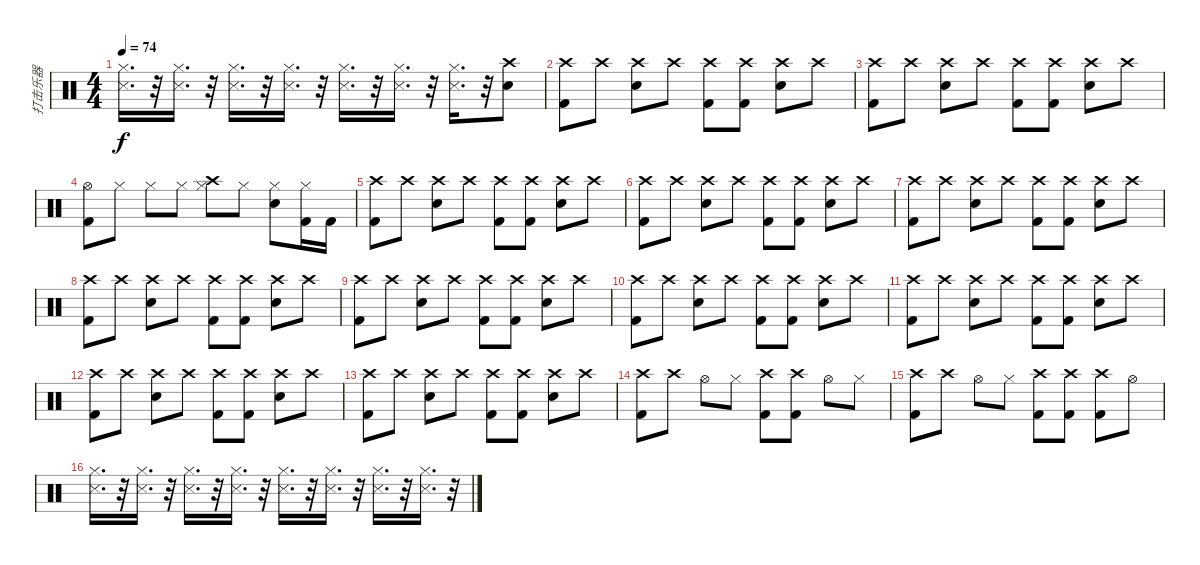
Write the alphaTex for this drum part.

\track ("打击乐器" "打击乐器") {instrument percussion}
\staff {score}
\articulation defaults
\ts (4 4)
\tempo 74
\clef neutral
\ks c
("Hi-Hat (closed)" "Snare (side stick) 3").16{d dy f} r.32 ("Hi-Hat (closed)" "Snare (side stick) 3").16{d} r.32 ("Hi-Hat (closed)" "Snare (side stick) 3").16{d} r.32 ("Hi-Hat (closed)" "Snare (side stick) 3").16{d} r.32 ("Hi-Hat (closed)" "Snare (side stick) 3").16{d} r.32 ("Hi-Hat (closed)" "Snare (side stick) 3").16{d} r.32 ("Hi-Hat (closed)" "Snare (side stick) 3").16{d} r.32 ("Crash high (hit)" "Snare (hit) 2").8 |
("Crash high (hit)" "Kick (hit) 2").8 "Crash high (hit)".8 ("Crash high (hit)" "Snare (hit) 2").8 "Crash high (hit)".8 ("Crash high (hit)" "Kick (hit) 2").8 ("Crash high (hit)" "Kick (hit) 2").8 ("Crash high (hit)" "Snare (hit) 2").8 "Crash high (hit)".8 |
("Crash high (hit)" "Kick (hit) 2").8 "Crash high (hit)".8 ("Crash high (hit)" "Snare (hit) 2").8 "Crash high (hit)".8 ("Crash high (hit)" "Kick (hit) 2").8 ("Crash high (hit)" "Kick (hit) 2").8 ("Crash high (hit)" "Snare (hit) 2").8 "Crash high (hit)".8 |
("Hi-Hat (open)" "Kick (hit) 2").8 "Hi-Hat (closed)".8 "Hi-Hat (closed)".8 "Hi-Hat (closed)".8 ("Crash high (hit)" "Hi-Hat (closed)").8 "Hi-Hat (closed)".8 ("Hi-Hat (closed)" "Snare (hit) 2").8 ("Hi-Hat (closed)" "Kick (hit) 2").16 "Kick (hit) 2".16 |
("Crash high (hit)" "Kick (hit) 2").8 "Crash high (hit)".8 ("Crash high (hit)" "Snare (hit) 2").8 "Crash high (hit)".8 ("Crash high (hit)" "Kick (hit) 2").8 ("Crash high (hit)" "Kick (hit) 2").8 ("Crash high (hit)" "Snare (hit) 2").8 "Crash high (hit)".8 |
("Crash high (hit)" "Kick (hit) 2").8 "Crash high (hit)".8 ("Crash high (hit)" "Snare (hit) 2").8 "Crash high (hit)".8 ("Crash high (hit)" "Kick (hit) 2").8 ("Crash high (hit)" "Kick (hit) 2").8 ("Crash high (hit)" "Snare (hit) 2").8 "Crash high (hit)".8 |
("Crash high (hit)" "Kick (hit) 2").8 "Crash high (hit)".8 ("Crash high (hit)" "Snare (hit) 2").8 "Crash high (hit)".8 ("Crash high (hit)" "Kick (hit) 2").8 ("Crash high (hit)" "Kick (hit) 2").8 ("Crash high (hit)" "Snare (hit) 2").8 "Crash high (hit)".8 |
("Crash high (hit)" "Kick (hit) 2").8 "Crash high (hit)".8 ("Crash high (hit)" "Snare (hit) 2").8 "Crash high (hit)".8 ("Crash high (hit)" "Kick (hit) 2").8 ("Crash high (hit)" "Kick (hit) 2").8 ("Crash high (hit)" "Snare (hit) 2").8 "Crash high (hit)".8 |
("Crash high (hit)" "Kick (hit) 2").8 "Crash high (hit)".8 ("Crash high (hit)" "Snare (hit) 2").8 "Crash high (hit)".8 ("Crash high (hit)" "Kick (hit) 2").8 ("Crash high (hit)" "Kick (hit) 2").8 ("Crash high (hit)" "Snare (hit) 2").8 "Crash high (hit)".8 |
("Crash high (hit)" "Kick (hit) 2").8 "Crash high (hit)".8 ("Crash high (hit)" "Snare (hit) 2").8 "Crash high (hit)".8 ("Crash high (hit)" "Kick (hit) 2").8 ("Crash high (hit)" "Kick (hit) 2").8 ("Crash high (hit)" "Snare (hit) 2").8 "Crash high (hit)".8 |
("Crash high (hit)" "Kick (hit) 2").8 "Crash high (hit)".8 ("Crash high (hit)" "Snare (hit) 2").8 "Crash high (hit)".8 ("Crash high (hit)" "Kick (hit) 2").8 ("Crash high (hit)" "Kick (hit) 2").8 ("Crash high (hit)" "Snare (hit) 2").8 "Crash high (hit)".8 |
("Crash high (hit)" "Kick (hit) 2").8 "Crash high (hit)".8 ("Crash high (hit)" "Snare (hit) 2").8 "Crash high (hit)".8 ("Crash high (hit)" "Kick (hit) 2").8 ("Crash high (hit)" "Kick (hit) 2").8 ("Crash high (hit)" "Snare (hit) 2").8 "Crash high (hit)".8 |
("Crash high (hit)" "Kick (hit) 2").8 "Crash high (hit)".8 ("Crash high (hit)" "Snare (hit) 2").8 "Crash high (hit)".8 ("Crash high (hit)" "Kick (hit) 2").8 ("Crash high (hit)" "Kick (hit) 2").8 ("Crash high (hit)" "Snare (hit) 2").8 "Crash high (hit)".8 |
("Crash high (hit)" "Kick (hit) 2").8 "Crash high (hit)".8 "Hi-Hat (open)".8 "Hi-Hat (closed)".8 ("Crash high (hit)" "Kick (hit) 2").8 ("Crash high (hit)" "Kick (hit) 2").8 "Hi-Hat (open)".8 "Hi-Hat (closed)".8 |
("Crash high (hit)" "Kick (hit) 2").8 "Crash high (hit)".8 "Hi-Hat (open)".8 "Hi-Hat (closed)".8 ("Crash high (hit)" "Kick (hit) 2").8 ("Crash high (hit)" "Kick (hit) 2").8 ("Crash high (hit)" "Kick (hit) 2").8 "Hi-Hat (open)".8 |
("Hi-Hat (closed)" "Snare (side stick) 3").16{d} r.32 ("Hi-Hat (closed)" "Snare (side stick) 3").16{d} r.32 ("Hi-Hat (closed)" "Snare (side stick) 3").16{d} r.32 ("Hi-Hat (closed)" "Snare (side stick) 3").16{d} r.32 ("Hi-Hat (closed)" "Snare (side stick) 3").16{d} r.32 ("Hi-Hat (closed)" "Snare (side stick) 3").16{d} r.32 ("Hi-Hat (closed)" "Snare (side stick) 3").16{d} r.32 ("Hi-Hat (closed)" "Snare (side stick) 3").16{d} r.32
